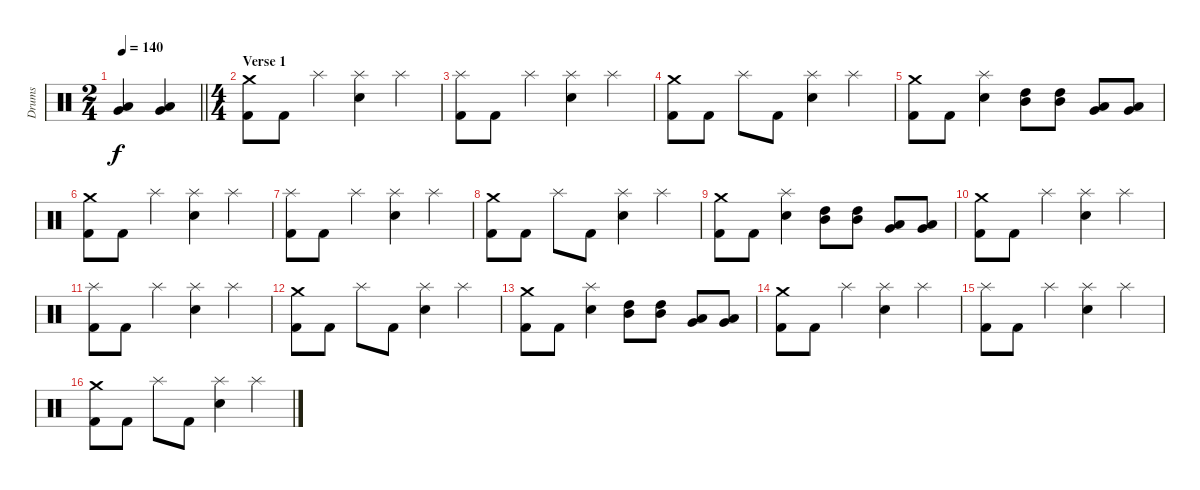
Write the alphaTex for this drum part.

\track ("Drums" "Drums") {instrument percussion}
\staff {score}
\articulation defaults
\ts (2 4)
\tempo 140
\clef neutral
\barLineRight lightlight
\ks c
("Low Tom (hit)" "Very Low Tom (hit)").4{dy f} ("Low Tom (hit)" "Very Low Tom (hit)").4 |
\ts (4 4)
\section ("" "Verse 1")
("Kick (hit) 2" "Crash medium (hit)").8 "Kick (hit) 2".8 "Splash (hit)".4 ("Snare (hit) 2" "Splash (hit)").4 "Splash (hit)".4 |
("Kick (hit) 2" "Splash (hit)").8 "Kick (hit) 2".8 "Splash (hit)".4 ("Snare (hit) 2" "Splash (hit)").4 "Splash (hit)".4 |
("Kick (hit) 2" "Crash medium (hit)").8 "Kick (hit) 2".8 "Splash (hit)".8 "Kick (hit) 2".8 ("Snare (hit) 2" "Splash (hit)").4 "Splash (hit)".4 |
("Kick (hit) 2" "Crash medium (hit)").8 "Kick (hit) 2".8 ("Snare (hit) 2" "Splash (hit)").4 ("High Tom (hit)" "Mid Tom (hit)").8 ("High Tom (hit)" "Mid Tom (hit)").8 ("Low Tom (hit)" "Very Low Tom (hit)").8 ("Low Tom (hit)" "Very Low Tom (hit)").8 |
("Kick (hit) 2" "Crash medium (hit)").8 "Kick (hit) 2".8 "Splash (hit)".4 ("Snare (hit) 2" "Splash (hit)").4 "Splash (hit)".4 |
("Kick (hit) 2" "Splash (hit)").8 "Kick (hit) 2".8 "Splash (hit)".4 ("Snare (hit) 2" "Splash (hit)").4 "Splash (hit)".4 |
("Kick (hit) 2" "Crash medium (hit)").8 "Kick (hit) 2".8 "Splash (hit)".8 "Kick (hit) 2".8 ("Snare (hit) 2" "Splash (hit)").4 "Splash (hit)".4 |
("Kick (hit) 2" "Crash medium (hit)").8 "Kick (hit) 2".8 ("Snare (hit) 2" "Splash (hit)").4 ("High Tom (hit)" "Mid Tom (hit)").8 ("High Tom (hit)" "Mid Tom (hit)").8 ("Low Tom (hit)" "Very Low Tom (hit)").8 ("Low Tom (hit)" "Very Low Tom (hit)").8 |
("Kick (hit) 2" "Crash medium (hit)").8 "Kick (hit) 2".8 "Splash (hit)".4 ("Snare (hit) 2" "Splash (hit)").4 "Splash (hit)".4 |
("Kick (hit) 2" "Splash (hit)").8 "Kick (hit) 2".8 "Splash (hit)".4 ("Snare (hit) 2" "Splash (hit)").4 "Splash (hit)".4 |
("Kick (hit) 2" "Crash medium (hit)").8 "Kick (hit) 2".8 "Splash (hit)".8 "Kick (hit) 2".8 ("Snare (hit) 2" "Splash (hit)").4 "Splash (hit)".4 |
("Kick (hit) 2" "Crash medium (hit)").8 "Kick (hit) 2".8 ("Snare (hit) 2" "Splash (hit)").4 ("High Tom (hit)" "Mid Tom (hit)").8 ("High Tom (hit)" "Mid Tom (hit)").8 ("Low Tom (hit)" "Very Low Tom (hit)").8 ("Low Tom (hit)" "Very Low Tom (hit)").8 |
("Kick (hit) 2" "Crash medium (hit)").8 "Kick (hit) 2".8 "Splash (hit)".4 ("Snare (hit) 2" "Splash (hit)").4 "Splash (hit)".4 |
("Kick (hit) 2" "Splash (hit)").8 "Kick (hit) 2".8 "Splash (hit)".4 ("Snare (hit) 2" "Splash (hit)").4 "Splash (hit)".4 |
("Kick (hit) 2" "Crash medium (hit)").8 "Kick (hit) 2".8 "Splash (hit)".8 "Kick (hit) 2".8 ("Snare (hit) 2" "Splash (hit)").4 "Splash (hit)".4
